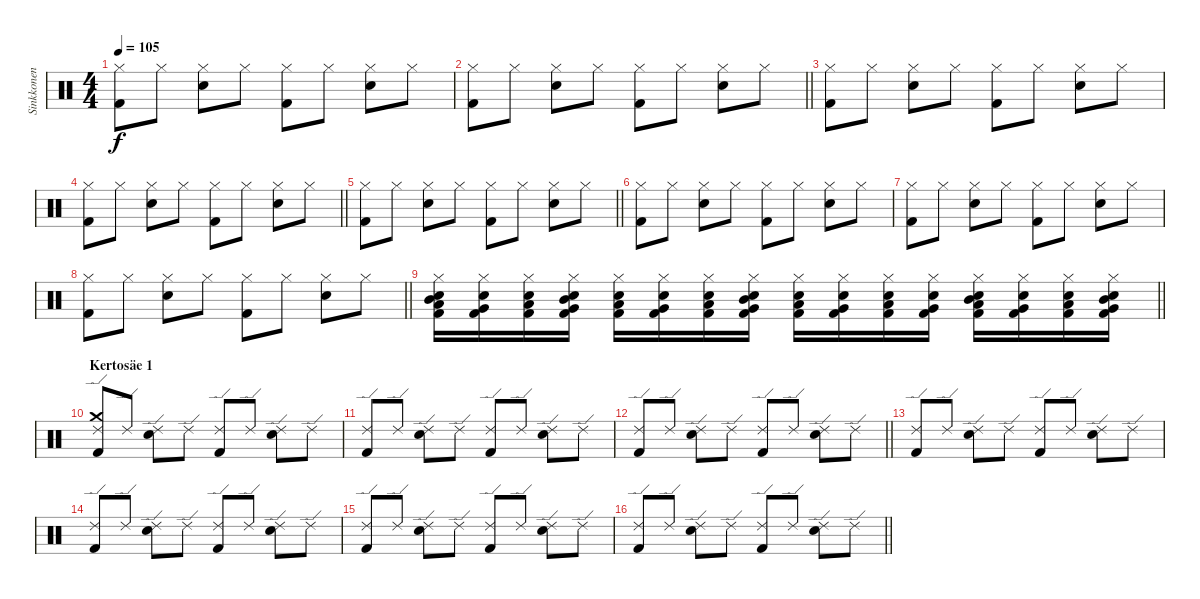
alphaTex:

\track ("Sinkkonen" "Sinkkonen") {instrument percussion}
\staff {score}
\articulation defaults
\ts (4 4)
\section ("" "")
\tempo 105
\clef neutral
\ks c
("Hi-Hat (closed)" "Kick (hit) 2").8{dy f} "Hi-Hat (closed)".8 ("Hi-Hat (closed)" "Electric Snare (hit)").8 "Hi-Hat (closed)".8 ("Hi-Hat (closed)" "Kick (hit) 2").8 "Hi-Hat (closed)".8 ("Hi-Hat (closed)" "Electric Snare (hit)").8 "Hi-Hat (closed)".8 |
\barLineRight lightlight
("Hi-Hat (closed)" "Kick (hit) 2").8 "Hi-Hat (closed)".8 ("Hi-Hat (closed)" "Electric Snare (hit)").8 "Hi-Hat (closed)".8 ("Hi-Hat (closed)" "Kick (hit) 2").8 "Hi-Hat (closed)".8 ("Hi-Hat (closed)" "Electric Snare (hit)").8 "Hi-Hat (closed)".8 |
\section ("" "")
("Hi-Hat (closed)" "Kick (hit) 2").8 "Hi-Hat (closed)".8 ("Hi-Hat (closed)" "Electric Snare (hit)").8 "Hi-Hat (closed)".8 ("Hi-Hat (closed)" "Kick (hit) 2").8 "Hi-Hat (closed)".8 ("Hi-Hat (closed)" "Electric Snare (hit)").8 "Hi-Hat (closed)".8 |
\barLineRight lightlight
("Hi-Hat (closed)" "Kick (hit) 2").8 "Hi-Hat (closed)".8 ("Hi-Hat (closed)" "Electric Snare (hit)").8 "Hi-Hat (closed)".8 ("Hi-Hat (closed)" "Kick (hit) 2").8 "Hi-Hat (closed)".8 ("Hi-Hat (closed)" "Electric Snare (hit)").8 "Hi-Hat (closed)".8 |
\section ("" "")
\barLineRight lightlight
("Hi-Hat (closed)" "Kick (hit) 2").8 "Hi-Hat (closed)".8 ("Hi-Hat (closed)" "Electric Snare (hit)").8 "Hi-Hat (closed)".8 ("Hi-Hat (closed)" "Kick (hit) 2").8 "Hi-Hat (closed)".8 ("Hi-Hat (closed)" "Electric Snare (hit)").8 "Hi-Hat (closed)".8 |
\section ("" "")
("Hi-Hat (closed)" "Kick (hit) 2").8 "Hi-Hat (closed)".8 ("Hi-Hat (closed)" "Electric Snare (hit)").8 "Hi-Hat (closed)".8 ("Hi-Hat (closed)" "Kick (hit) 2").8 "Hi-Hat (closed)".8 ("Hi-Hat (closed)" "Electric Snare (hit)").8 "Hi-Hat (closed)".8 |
("Hi-Hat (closed)" "Kick (hit) 2").8 "Hi-Hat (closed)".8 ("Hi-Hat (closed)" "Electric Snare (hit)").8 "Hi-Hat (closed)".8 ("Hi-Hat (closed)" "Kick (hit) 2").8 "Hi-Hat (closed)".8 ("Hi-Hat (closed)" "Electric Snare (hit)").8 "Hi-Hat (closed)".8 |
\barLineRight lightlight
("Hi-Hat (closed)" "Kick (hit) 2").8 "Hi-Hat (closed)".8 ("Hi-Hat (closed)" "Electric Snare (hit)").8 "Hi-Hat (closed)".8 ("Hi-Hat (closed)" "Kick (hit) 2").8 "Hi-Hat (closed)".8 ("Hi-Hat (closed)" "Electric Snare (hit)").8 "Hi-Hat (closed)".8 |
\barLineRight lightlight
("Mid Tom (hit)" "Electric Snare (hit)" "Hi-Hat (closed)" "Low Floor Tom (hit)" "Kick (hit) 2").16 ("Electric Snare (hit)" "Hi-Hat (closed)" "Very Low Tom (hit)" "Kick (hit) 2").16 ("Electric Snare (hit)" "Hi-Hat (closed)" "Low Floor Tom (hit)" "Kick (hit) 2").16 ("Mid Tom (hit)" "Electric Snare (hit)" "Hi-Hat (closed)" "Very Low Tom (hit)" "Kick (hit) 2").16 ("Electric Snare (hit)" "Hi-Hat (closed)" "Low Floor Tom (hit)" "Kick (hit) 2").16 ("Electric Snare (hit)" "Hi-Hat (closed)" "Very Low Tom (hit)" "Kick (hit) 2").16 ("Electric Snare (hit)" "Hi-Hat (closed)" "Low Floor Tom (hit)" "Kick (hit) 2").16 ("Mid Tom (hit)" "Electric Snare (hit)" "Hi-Hat (closed)" "Very Low Tom (hit)" "Kick (hit) 2").16 ("Electric Snare (hit)" "Hi-Hat (closed)" "Low Floor Tom (hit)" "Kick (hit) 2").16 ("Electric Snare (hit)" "Hi-Hat (closed)" "Very Low Tom (hit)" "Kick (hit) 2").16 ("Electric Snare (hit)" "Hi-Hat (closed)" "Low Floor Tom (hit)" "Kick (hit) 2").16 ("Electric Snare (hit)" "Hi-Hat (closed)" "Very Low Tom (hit)" "Kick (hit) 2").16 ("Mid Tom (hit)" "Electric Snare (hit)" "Hi-Hat (closed)" "Low Floor Tom (hit)" "Kick (hit) 2").16 ("Electric Snare (hit)" "Hi-Hat (closed)" "Very Low Tom (hit)" "Kick (hit) 2").16 ("Electric Snare (hit)" "Hi-Hat (closed)" "Low Floor Tom (hit)" "Kick (hit) 2").16 ("Mid Tom (hit)" "Electric Snare (hit)" "Hi-Hat (closed)" "Very Low Tom (hit)" "Kick (hit) 2").16 |
\section ("" "Kertosäe 1")
("Crash medium (hit)" "Ride (edge) 2" "Kick (hit) 2").8 "Ride (edge) 2".8 ("Ride (edge) 2" "Electric Snare (hit)").8 "Ride (edge) 2".8 ("Ride (edge) 2" "Kick (hit) 2").8 "Ride (edge) 2".8 ("Ride (edge) 2" "Electric Snare (hit)").8 "Ride (edge) 2".8 |
("Ride (edge) 2" "Kick (hit) 2").8 "Ride (edge) 2".8 ("Ride (edge) 2" "Electric Snare (hit)").8 "Ride (edge) 2".8 ("Ride (edge) 2" "Kick (hit) 2").8 "Ride (edge) 2".8 ("Ride (edge) 2" "Electric Snare (hit)").8 "Ride (edge) 2".8 |
\barLineRight lightlight
("Ride (edge) 2" "Kick (hit) 2").8 "Ride (edge) 2".8 ("Ride (edge) 2" "Electric Snare (hit)").8 "Ride (edge) 2".8 ("Ride (edge) 2" "Kick (hit) 2").8 "Ride (edge) 2".8 ("Ride (edge) 2" "Electric Snare (hit)").8 "Ride (edge) 2".8 |
("Ride (edge) 2" "Kick (hit) 2").8 "Ride (edge) 2".8 ("Ride (edge) 2" "Electric Snare (hit)").8 "Ride (edge) 2".8 ("Ride (edge) 2" "Kick (hit) 2").8 "Ride (edge) 2".8 ("Ride (edge) 2" "Electric Snare (hit)").8 "Ride (edge) 2".8 |
("Ride (edge) 2" "Kick (hit) 2").8 "Ride (edge) 2".8 ("Ride (edge) 2" "Electric Snare (hit)").8 "Ride (edge) 2".8 ("Ride (edge) 2" "Kick (hit) 2").8 "Ride (edge) 2".8 ("Ride (edge) 2" "Electric Snare (hit)").8 "Ride (edge) 2".8 |
("Ride (edge) 2" "Kick (hit) 2").8 "Ride (edge) 2".8 ("Ride (edge) 2" "Electric Snare (hit)").8 "Ride (edge) 2".8 ("Ride (edge) 2" "Kick (hit) 2").8 "Ride (edge) 2".8 ("Ride (edge) 2" "Electric Snare (hit)").8 "Ride (edge) 2".8 |
\barLineRight lightlight
("Ride (edge) 2" "Kick (hit) 2").8 "Ride (edge) 2".8 ("Ride (edge) 2" "Electric Snare (hit)").8 "Ride (edge) 2".8 ("Ride (edge) 2" "Kick (hit) 2").8 "Ride (edge) 2".8 ("Ride (edge) 2" "Electric Snare (hit)").8 "Ride (edge) 2".8
